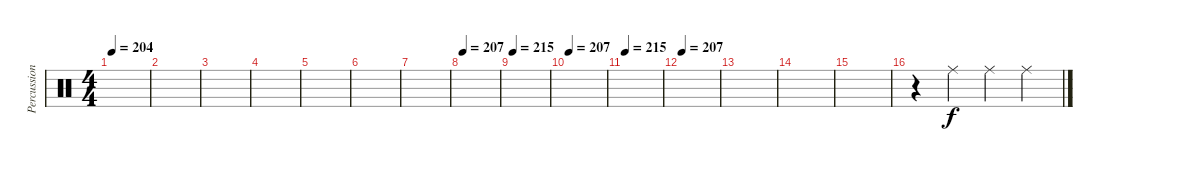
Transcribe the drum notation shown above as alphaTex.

\track ("Percussion2" "Percussion") {instrument percussion}
\staff {score}
\articulation defaults
\ts (4 4)
\tempo 204
\clef neutral
\ks c
|
|
|
|
|
|
|
\tempo 207
|
\tempo 215
|
\tempo 207
|
\tempo 215
|
\tempo 207
|
|
|
|
r.4 "Ride (middle)".4{dy f} "Ride (middle)".4 "Ride (middle)".4
